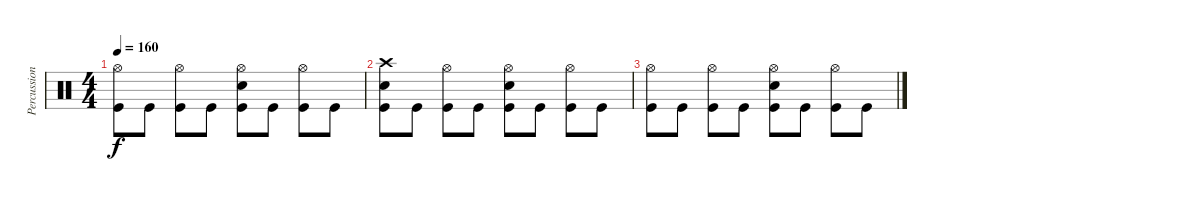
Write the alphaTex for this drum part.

\track ("Percussions" "Percussion") {instrument percussion}
\staff {score}
\articulation defaults
\ts (4 4)
\tempo 160
\clef neutral
\ks c
("Hi-Hat (open)" "Kick (hit)").8{dy f} "Kick (hit)".8 ("Hi-Hat (open)" "Kick (hit)").8 "Kick (hit)".8 ("Hi-Hat (open)" "Electric Snare (hit)" "Kick (hit)").8 "Kick (hit)".8 ("Hi-Hat (open)" "Kick (hit)").8 "Kick (hit)".8 |
("Crash high (hit)" "Electric Snare (hit)" "Kick (hit)").8 "Kick (hit)".8 ("Hi-Hat (open)" "Kick (hit)").8 "Kick (hit)".8 ("Electric Snare (hit)" "Hi-Hat (open)" "Kick (hit)").8 "Kick (hit)".8 ("Hi-Hat (open)" "Kick (hit)").8 "Kick (hit)".8 |
("Hi-Hat (open)" "Kick (hit)").8 "Kick (hit)".8 ("Hi-Hat (open)" "Kick (hit)").8 "Kick (hit)".8 ("Hi-Hat (open)" "Electric Snare (hit)" "Kick (hit)").8 "Kick (hit)".8 ("Hi-Hat (open)" "Kick (hit)").8 "Kick (hit)".8
